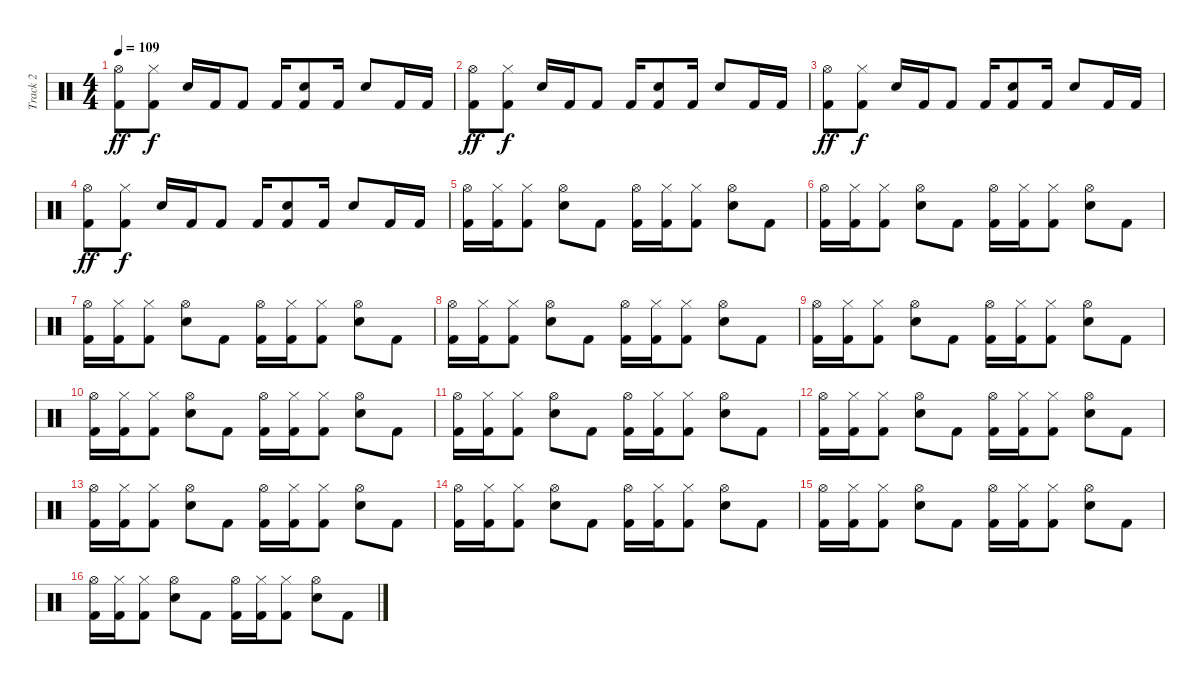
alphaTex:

\track ("Track 2" "Track 2") {instrument percussion}
\staff {score}
\articulation defaults
\ts (4 4)
\tempo 109
\clef neutral
\ks c
("Hi-Hat (open)" "Kick (hit) 2").8{dy ff} ("Hi-Hat (closed)" "Kick (hit) 2").8{dy f} "Electric Snare (hit)".16 "Kick (hit) 2".16 "Kick (hit) 2".8 "Kick (hit) 2".16 ("Electric Snare (hit)" "Kick (hit) 2").8 "Kick (hit) 2".16 "Electric Snare (hit)".8 "Kick (hit) 2".16 "Kick (hit) 2".16 |
("Hi-Hat (open)" "Kick (hit) 2").8{dy ff} ("Hi-Hat (closed)" "Kick (hit) 2").8{dy f} "Electric Snare (hit)".16 "Kick (hit) 2".16 "Kick (hit) 2".8 "Kick (hit) 2".16 ("Electric Snare (hit)" "Kick (hit) 2").8 "Kick (hit) 2".16 "Electric Snare (hit)".8 "Kick (hit) 2".16 "Kick (hit) 2".16 |
("Hi-Hat (open)" "Kick (hit) 2").8{dy ff} ("Hi-Hat (closed)" "Kick (hit) 2").8{dy f} "Electric Snare (hit)".16 "Kick (hit) 2".16 "Kick (hit) 2".8 "Kick (hit) 2".16 ("Electric Snare (hit)" "Kick (hit) 2").8 "Kick (hit) 2".16 "Electric Snare (hit)".8 "Kick (hit) 2".16 "Kick (hit) 2".16 |
("Hi-Hat (open)" "Kick (hit) 2").8{dy ff} ("Hi-Hat (closed)" "Kick (hit) 2").8{dy f} "Electric Snare (hit)".16 "Kick (hit) 2".16 "Kick (hit) 2".8 "Kick (hit) 2".16 ("Electric Snare (hit)" "Kick (hit) 2").8 "Kick (hit) 2".16 "Electric Snare (hit)".8 "Kick (hit) 2".16 "Kick (hit) 2".16 |
("Hi-Hat (open)" "Kick (hit) 2").16 ("Hi-Hat (closed)" "Kick (hit) 2").16 ("Hi-Hat (closed)" "Kick (hit) 2").8 ("Hi-Hat (open)" "Electric Snare (hit)").8 "Kick (hit) 2".8 ("Hi-Hat (open)" "Kick (hit) 2").16 ("Hi-Hat (closed)" "Kick (hit) 2").16 ("Hi-Hat (closed)" "Kick (hit) 2").8 ("Hi-Hat (open)" "Electric Snare (hit)").8 "Kick (hit) 2".8 |
("Hi-Hat (open)" "Kick (hit) 2").16 ("Hi-Hat (closed)" "Kick (hit) 2").16 ("Hi-Hat (closed)" "Kick (hit) 2").8 ("Hi-Hat (open)" "Electric Snare (hit)").8 "Kick (hit) 2".8 ("Hi-Hat (open)" "Kick (hit) 2").16 ("Hi-Hat (closed)" "Kick (hit) 2").16 ("Hi-Hat (closed)" "Kick (hit) 2").8 ("Hi-Hat (open)" "Electric Snare (hit)").8 "Kick (hit) 2".8 |
("Hi-Hat (open)" "Kick (hit) 2").16 ("Hi-Hat (closed)" "Kick (hit) 2").16 ("Hi-Hat (closed)" "Kick (hit) 2").8 ("Hi-Hat (open)" "Electric Snare (hit)").8 "Kick (hit) 2".8 ("Hi-Hat (open)" "Kick (hit) 2").16 ("Hi-Hat (closed)" "Kick (hit) 2").16 ("Hi-Hat (closed)" "Kick (hit) 2").8 ("Hi-Hat (open)" "Electric Snare (hit)").8 "Kick (hit) 2".8 |
("Hi-Hat (open)" "Kick (hit) 2").16 ("Hi-Hat (closed)" "Kick (hit) 2").16 ("Hi-Hat (closed)" "Kick (hit) 2").8 ("Hi-Hat (open)" "Electric Snare (hit)").8 "Kick (hit) 2".8 ("Hi-Hat (open)" "Kick (hit) 2").16 ("Hi-Hat (closed)" "Kick (hit) 2").16 ("Hi-Hat (closed)" "Kick (hit) 2").8 ("Hi-Hat (open)" "Electric Snare (hit)").8 "Kick (hit) 2".8 |
("Hi-Hat (open)" "Kick (hit) 2").16 ("Hi-Hat (closed)" "Kick (hit) 2").16 ("Hi-Hat (closed)" "Kick (hit) 2").8 ("Hi-Hat (open)" "Electric Snare (hit)").8 "Kick (hit) 2".8 ("Hi-Hat (open)" "Kick (hit) 2").16 ("Hi-Hat (closed)" "Kick (hit) 2").16 ("Hi-Hat (closed)" "Kick (hit) 2").8 ("Hi-Hat (open)" "Electric Snare (hit)").8 "Kick (hit) 2".8 |
("Hi-Hat (open)" "Kick (hit) 2").16 ("Hi-Hat (closed)" "Kick (hit) 2").16 ("Hi-Hat (closed)" "Kick (hit) 2").8 ("Hi-Hat (open)" "Electric Snare (hit)").8 "Kick (hit) 2".8 ("Hi-Hat (open)" "Kick (hit) 2").16 ("Hi-Hat (closed)" "Kick (hit) 2").16 ("Hi-Hat (closed)" "Kick (hit) 2").8 ("Hi-Hat (open)" "Electric Snare (hit)").8 "Kick (hit) 2".8 |
("Hi-Hat (open)" "Kick (hit) 2").16 ("Hi-Hat (closed)" "Kick (hit) 2").16 ("Hi-Hat (closed)" "Kick (hit) 2").8 ("Hi-Hat (open)" "Electric Snare (hit)").8 "Kick (hit) 2".8 ("Hi-Hat (open)" "Kick (hit) 2").16 ("Hi-Hat (closed)" "Kick (hit) 2").16 ("Hi-Hat (closed)" "Kick (hit) 2").8 ("Hi-Hat (open)" "Electric Snare (hit)").8 "Kick (hit) 2".8 |
("Hi-Hat (open)" "Kick (hit) 2").16 ("Hi-Hat (closed)" "Kick (hit) 2").16 ("Hi-Hat (closed)" "Kick (hit) 2").8 ("Hi-Hat (open)" "Electric Snare (hit)").8 "Kick (hit) 2".8 ("Hi-Hat (open)" "Kick (hit) 2").16 ("Hi-Hat (closed)" "Kick (hit) 2").16 ("Hi-Hat (closed)" "Kick (hit) 2").8 ("Hi-Hat (open)" "Electric Snare (hit)").8 "Kick (hit) 2".8 |
("Hi-Hat (open)" "Kick (hit) 2").16 ("Hi-Hat (closed)" "Kick (hit) 2").16 ("Hi-Hat (closed)" "Kick (hit) 2").8 ("Hi-Hat (open)" "Electric Snare (hit)").8 "Kick (hit) 2".8 ("Hi-Hat (open)" "Kick (hit) 2").16 ("Hi-Hat (closed)" "Kick (hit) 2").16 ("Hi-Hat (closed)" "Kick (hit) 2").8 ("Hi-Hat (open)" "Electric Snare (hit)").8 "Kick (hit) 2".8 |
("Hi-Hat (open)" "Kick (hit) 2").16 ("Hi-Hat (closed)" "Kick (hit) 2").16 ("Hi-Hat (closed)" "Kick (hit) 2").8 ("Hi-Hat (open)" "Electric Snare (hit)").8 "Kick (hit) 2".8 ("Hi-Hat (open)" "Kick (hit) 2").16 ("Hi-Hat (closed)" "Kick (hit) 2").16 ("Hi-Hat (closed)" "Kick (hit) 2").8 ("Hi-Hat (open)" "Electric Snare (hit)").8 "Kick (hit) 2".8 |
("Hi-Hat (open)" "Kick (hit) 2").16 ("Hi-Hat (closed)" "Kick (hit) 2").16 ("Hi-Hat (closed)" "Kick (hit) 2").8 ("Hi-Hat (open)" "Electric Snare (hit)").8 "Kick (hit) 2".8 ("Hi-Hat (open)" "Kick (hit) 2").16 ("Hi-Hat (closed)" "Kick (hit) 2").16 ("Hi-Hat (closed)" "Kick (hit) 2").8 ("Hi-Hat (open)" "Electric Snare (hit)").8 "Kick (hit) 2".8 |
("Hi-Hat (open)" "Kick (hit) 2").16 ("Hi-Hat (closed)" "Kick (hit) 2").16 ("Hi-Hat (closed)" "Kick (hit) 2").8 ("Hi-Hat (open)" "Electric Snare (hit)").8 "Kick (hit) 2".8 ("Hi-Hat (open)" "Kick (hit) 2").16 ("Hi-Hat (closed)" "Kick (hit) 2").16 ("Hi-Hat (closed)" "Kick (hit) 2").8 ("Hi-Hat (open)" "Electric Snare (hit)").8 "Kick (hit) 2".8
